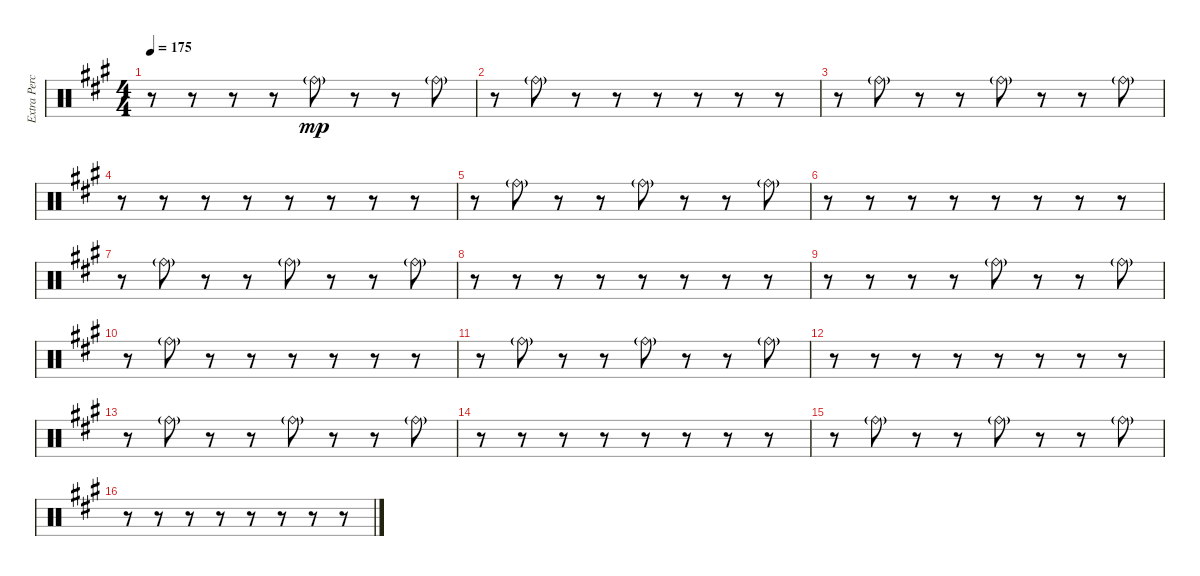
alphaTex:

\track ("Extra Percussion" "Extra Perc") {instrument percussion}
\staff {score}
\articulation defaults
\ts (4 4)
\tempo 175
\clef neutral
\ks f#minor
r.8{dy mp} r.8 r.8 r.8 "Ride (bell)"{g}.8 r.8 r.8 "Ride (bell)"{g}.8 |
r.8 "Ride (bell)"{g}.8 r.8 r.8 r.8 r.8 r.8 r.8 |
r.8 "Ride (bell)"{g}.8 r.8 r.8 "Ride (bell)"{g}.8 r.8 r.8 "Ride (bell)"{g}.8 |
r.8 r.8 r.8 r.8 r.8 r.8 r.8 r.8 |
r.8 "Ride (bell)"{g}.8 r.8 r.8 "Ride (bell)"{g}.8 r.8 r.8 "Ride (bell)"{g}.8 |
r.8 r.8 r.8 r.8 r.8 r.8 r.8 r.8 |
r.8 "Ride (bell)"{g}.8 r.8 r.8 "Ride (bell)"{g}.8 r.8 r.8 "Ride (bell)"{g}.8 |
r.8 r.8 r.8 r.8 r.8 r.8 r.8 r.8 |
r.8 r.8 r.8 r.8 "Ride (bell)"{g}.8 r.8 r.8 "Ride (bell)"{g}.8 |
r.8 "Ride (bell)"{g}.8 r.8 r.8 r.8 r.8 r.8 r.8 |
r.8 "Ride (bell)"{g}.8 r.8 r.8 "Ride (bell)"{g}.8 r.8 r.8 "Ride (bell)"{g}.8 |
r.8 r.8 r.8 r.8 r.8 r.8 r.8 r.8 |
r.8 "Ride (bell)"{g}.8 r.8 r.8 "Ride (bell)"{g}.8 r.8 r.8 "Ride (bell)"{g}.8 |
r.8 r.8 r.8 r.8 r.8 r.8 r.8 r.8 |
r.8 "Ride (bell)"{g}.8 r.8 r.8 "Ride (bell)"{g}.8 r.8 r.8 "Ride (bell)"{g}.8 |
r.8 r.8 r.8 r.8 r.8 r.8 r.8 r.8
